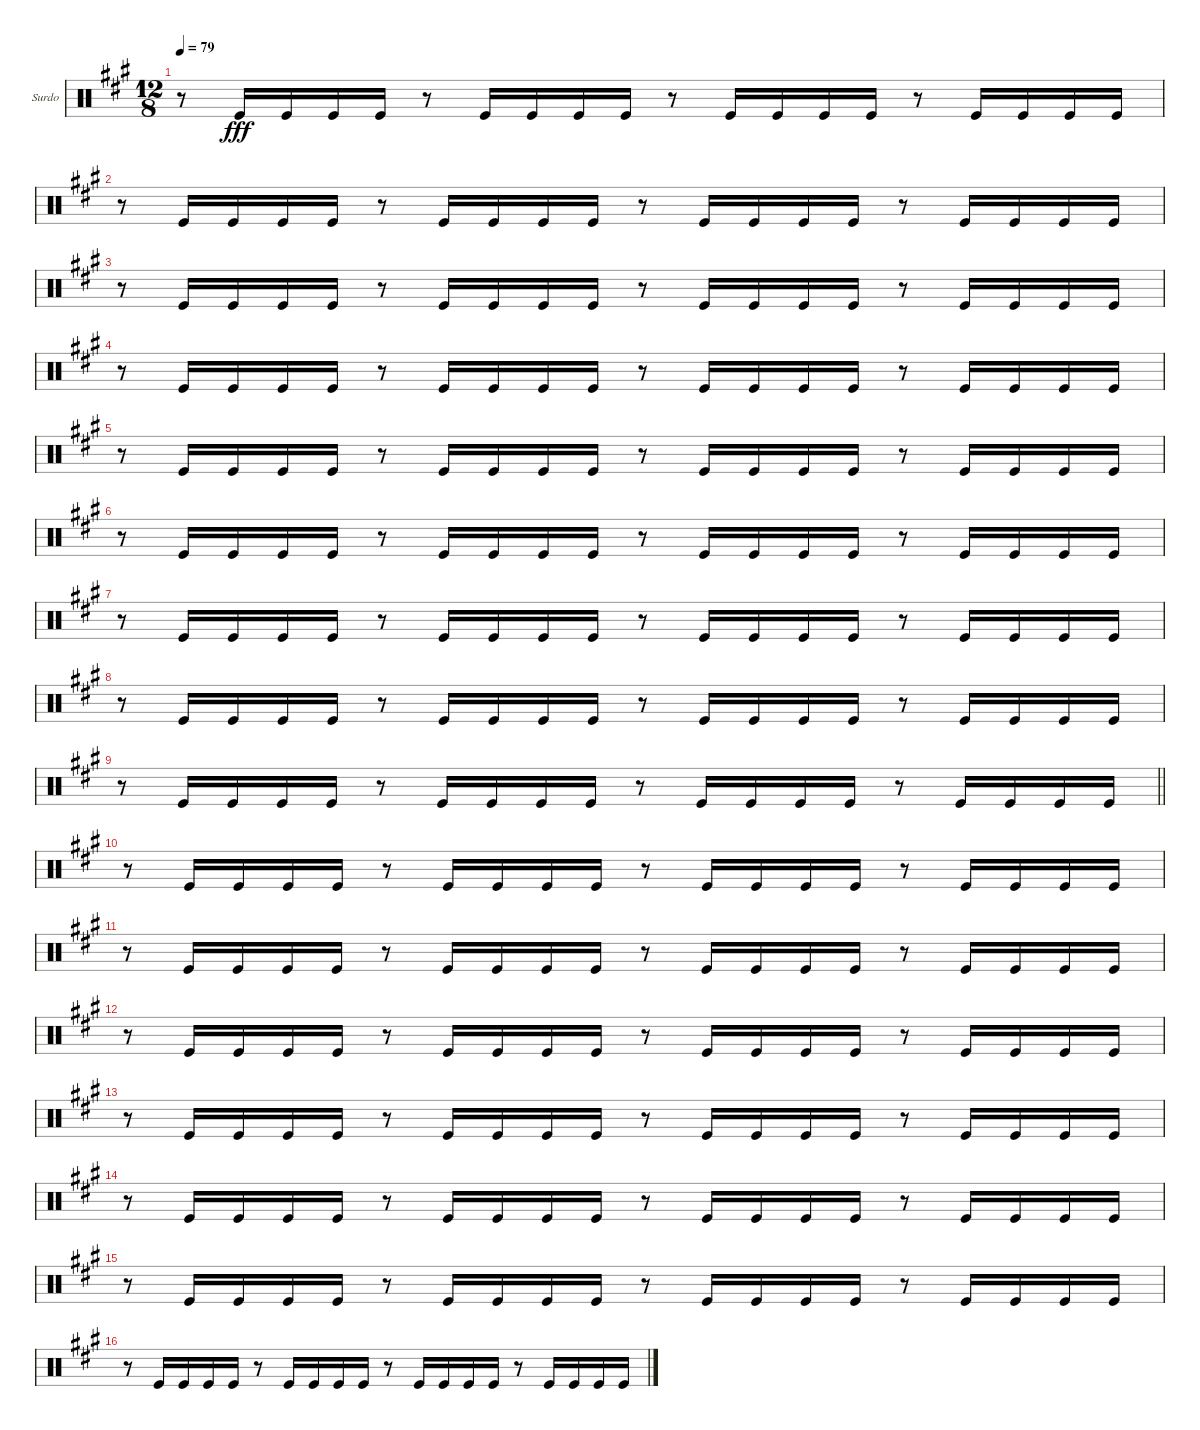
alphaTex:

\bracketExtendMode groupsimilarinstruments
\firstSystemTrackNameOrientation horizontal
\otherSystemsTrackNameOrientation horizontal
\track ("Surdo" "Surdo") {instrument percussion}
\staff {score}
\articulation defaults
\ts (12 8)
\tempo 79
\clef neutral
\ks f#minor
r.8{dy fff} "Kick (hit)".16 "Kick (hit)".16 "Kick (hit)".16 "Kick (hit)".16 r.8 "Kick (hit)".16 "Kick (hit)".16 "Kick (hit)".16 "Kick (hit)".16 r.8 "Kick (hit)".16 "Kick (hit)".16 "Kick (hit)".16 "Kick (hit)".16 r.8 "Kick (hit)".16 "Kick (hit)".16 "Kick (hit)".16 "Kick (hit)".16 |
r.8 "Kick (hit)".16 "Kick (hit)".16 "Kick (hit)".16 "Kick (hit)".16 r.8 "Kick (hit)".16 "Kick (hit)".16 "Kick (hit)".16 "Kick (hit)".16 r.8 "Kick (hit)".16 "Kick (hit)".16 "Kick (hit)".16 "Kick (hit)".16 r.8 "Kick (hit)".16 "Kick (hit)".16 "Kick (hit)".16 "Kick (hit)".16 |
r.8 "Kick (hit)".16 "Kick (hit)".16 "Kick (hit)".16 "Kick (hit)".16 r.8 "Kick (hit)".16 "Kick (hit)".16 "Kick (hit)".16 "Kick (hit)".16 r.8 "Kick (hit)".16 "Kick (hit)".16 "Kick (hit)".16 "Kick (hit)".16 r.8 "Kick (hit)".16 "Kick (hit)".16 "Kick (hit)".16 "Kick (hit)".16 |
r.8 "Kick (hit)".16 "Kick (hit)".16 "Kick (hit)".16 "Kick (hit)".16 r.8 "Kick (hit)".16 "Kick (hit)".16 "Kick (hit)".16 "Kick (hit)".16 r.8 "Kick (hit)".16 "Kick (hit)".16 "Kick (hit)".16 "Kick (hit)".16 r.8 "Kick (hit)".16 "Kick (hit)".16 "Kick (hit)".16 "Kick (hit)".16 |
r.8 "Kick (hit)".16 "Kick (hit)".16 "Kick (hit)".16 "Kick (hit)".16 r.8 "Kick (hit)".16 "Kick (hit)".16 "Kick (hit)".16 "Kick (hit)".16 r.8 "Kick (hit)".16 "Kick (hit)".16 "Kick (hit)".16 "Kick (hit)".16 r.8 "Kick (hit)".16 "Kick (hit)".16 "Kick (hit)".16 "Kick (hit)".16 |
r.8 "Kick (hit)".16 "Kick (hit)".16 "Kick (hit)".16 "Kick (hit)".16 r.8 "Kick (hit)".16 "Kick (hit)".16 "Kick (hit)".16 "Kick (hit)".16 r.8 "Kick (hit)".16 "Kick (hit)".16 "Kick (hit)".16 "Kick (hit)".16 r.8 "Kick (hit)".16 "Kick (hit)".16 "Kick (hit)".16 "Kick (hit)".16 |
r.8 "Kick (hit)".16 "Kick (hit)".16 "Kick (hit)".16 "Kick (hit)".16 r.8 "Kick (hit)".16 "Kick (hit)".16 "Kick (hit)".16 "Kick (hit)".16 r.8 "Kick (hit)".16 "Kick (hit)".16 "Kick (hit)".16 "Kick (hit)".16 r.8 "Kick (hit)".16 "Kick (hit)".16 "Kick (hit)".16 "Kick (hit)".16 |
r.8 "Kick (hit)".16 "Kick (hit)".16 "Kick (hit)".16 "Kick (hit)".16 r.8 "Kick (hit)".16 "Kick (hit)".16 "Kick (hit)".16 "Kick (hit)".16 r.8 "Kick (hit)".16 "Kick (hit)".16 "Kick (hit)".16 "Kick (hit)".16 r.8 "Kick (hit)".16 "Kick (hit)".16 "Kick (hit)".16 "Kick (hit)".16 |
\barLineRight lightlight
r.8 "Kick (hit)".16 "Kick (hit)".16 "Kick (hit)".16 "Kick (hit)".16 r.8 "Kick (hit)".16 "Kick (hit)".16 "Kick (hit)".16 "Kick (hit)".16 r.8 "Kick (hit)".16 "Kick (hit)".16 "Kick (hit)".16 "Kick (hit)".16 r.8 "Kick (hit)".16 "Kick (hit)".16 "Kick (hit)".16 "Kick (hit)".16 |
r.8 "Kick (hit)".16 "Kick (hit)".16 "Kick (hit)".16 "Kick (hit)".16 r.8 "Kick (hit)".16 "Kick (hit)".16 "Kick (hit)".16 "Kick (hit)".16 r.8 "Kick (hit)".16 "Kick (hit)".16 "Kick (hit)".16 "Kick (hit)".16 r.8 "Kick (hit)".16 "Kick (hit)".16 "Kick (hit)".16 "Kick (hit)".16 |
r.8 "Kick (hit)".16 "Kick (hit)".16 "Kick (hit)".16 "Kick (hit)".16 r.8 "Kick (hit)".16 "Kick (hit)".16 "Kick (hit)".16 "Kick (hit)".16 r.8 "Kick (hit)".16 "Kick (hit)".16 "Kick (hit)".16 "Kick (hit)".16 r.8 "Kick (hit)".16 "Kick (hit)".16 "Kick (hit)".16 "Kick (hit)".16 |
r.8 "Kick (hit)".16 "Kick (hit)".16 "Kick (hit)".16 "Kick (hit)".16 r.8 "Kick (hit)".16 "Kick (hit)".16 "Kick (hit)".16 "Kick (hit)".16 r.8 "Kick (hit)".16 "Kick (hit)".16 "Kick (hit)".16 "Kick (hit)".16 r.8 "Kick (hit)".16 "Kick (hit)".16 "Kick (hit)".16 "Kick (hit)".16 |
r.8 "Kick (hit)".16 "Kick (hit)".16 "Kick (hit)".16 "Kick (hit)".16 r.8 "Kick (hit)".16 "Kick (hit)".16 "Kick (hit)".16 "Kick (hit)".16 r.8 "Kick (hit)".16 "Kick (hit)".16 "Kick (hit)".16 "Kick (hit)".16 r.8 "Kick (hit)".16 "Kick (hit)".16 "Kick (hit)".16 "Kick (hit)".16 |
r.8 "Kick (hit)".16 "Kick (hit)".16 "Kick (hit)".16 "Kick (hit)".16 r.8 "Kick (hit)".16 "Kick (hit)".16 "Kick (hit)".16 "Kick (hit)".16 r.8 "Kick (hit)".16 "Kick (hit)".16 "Kick (hit)".16 "Kick (hit)".16 r.8 "Kick (hit)".16 "Kick (hit)".16 "Kick (hit)".16 "Kick (hit)".16 |
r.8 "Kick (hit)".16 "Kick (hit)".16 "Kick (hit)".16 "Kick (hit)".16 r.8 "Kick (hit)".16 "Kick (hit)".16 "Kick (hit)".16 "Kick (hit)".16 r.8 "Kick (hit)".16 "Kick (hit)".16 "Kick (hit)".16 "Kick (hit)".16 r.8 "Kick (hit)".16 "Kick (hit)".16 "Kick (hit)".16 "Kick (hit)".16 |
r.8 "Kick (hit)".16 "Kick (hit)".16 "Kick (hit)".16 "Kick (hit)".16 r.8 "Kick (hit)".16 "Kick (hit)".16 "Kick (hit)".16 "Kick (hit)".16 r.8 "Kick (hit)".16 "Kick (hit)".16 "Kick (hit)".16 "Kick (hit)".16 r.8 "Kick (hit)".16 "Kick (hit)".16 "Kick (hit)".16 "Kick (hit)".16
